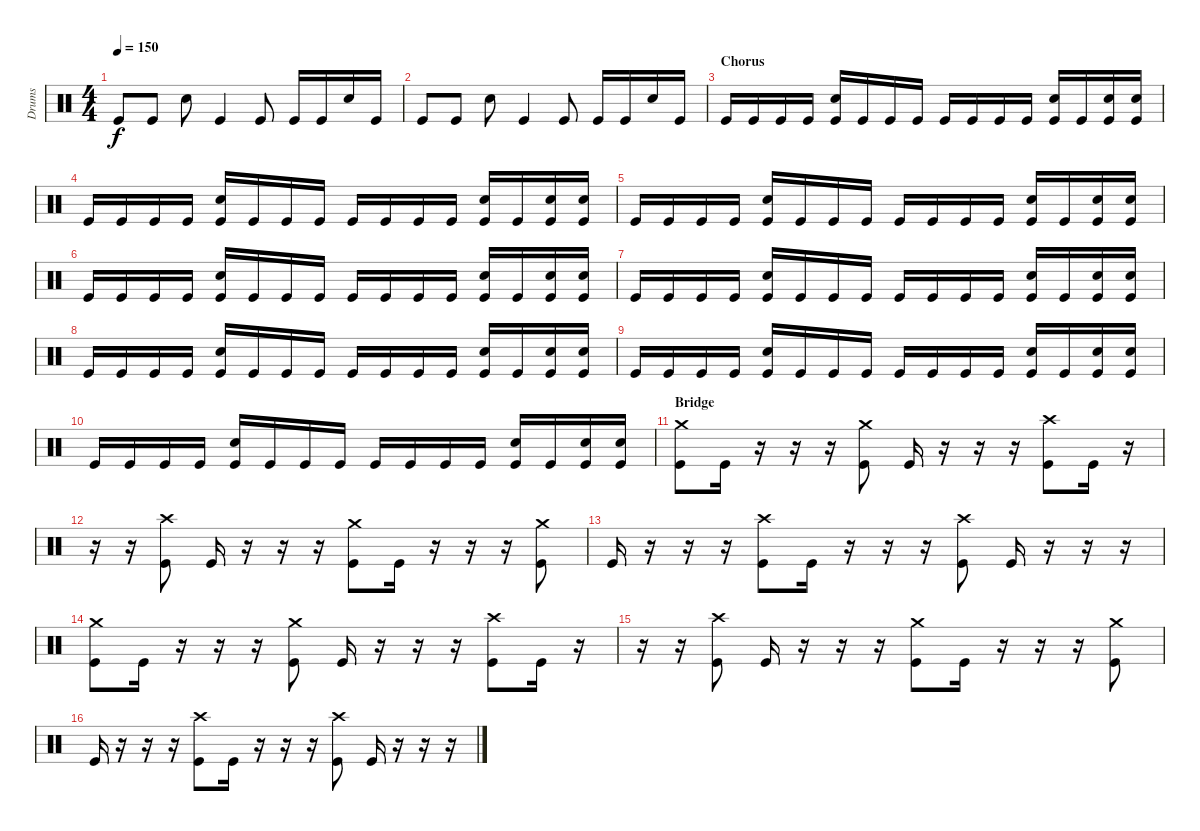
\track ("Drums" "Drums") {instrument percussion}
\staff {score}
\articulation defaults
\ts (4 4)
\tempo 150
\clef neutral
\ks c "Kick (hit)".8{dy f} "Kick (hit)".8 "Electric Snare (hit)".8 "Kick (hit)".4 "Kick (hit)".8 "Kick (hit)".16 "Kick (hit)".16 "Electric Snare (hit)".16 "Kick (hit)".16
|
"Kick (hit)".8 "Kick (hit)".8 "Electric Snare (hit)".8 "Kick (hit)".4 "Kick (hit)".8 "Kick (hit)".16 "Kick (hit)".16 "Electric Snare (hit)".16 "Kick (hit)".16 |
\section ("" "Chorus")
"Kick (hit)".16 "Kick (hit)".16 "Kick (hit)".16 "Kick (hit)".16 ("Electric Snare (hit)" "Kick (hit)").16 "Kick (hit)".16 "Kick (hit)".16 "Kick (hit)".16 "Kick (hit)".16 "Kick (hit)".16 "Kick (hit)".16 "Kick (hit)".16 ("Electric Snare (hit)" "Kick (hit)").16 "Kick (hit)".16 ("Electric Snare (hit)" "Kick (hit)").16 ("Electric Snare (hit)" "Kick (hit)").16 |
"Kick (hit)".16 "Kick (hit)".16 "Kick (hit)".16 "Kick (hit)".16 ("Electric Snare (hit)" "Kick (hit)").16 "Kick (hit)".16 "Kick (hit)".16 "Kick (hit)".16 "Kick (hit)".16 "Kick (hit)".16 "Kick (hit)".16 "Kick (hit)".16 ("Electric Snare (hit)" "Kick (hit)").16 "Kick (hit)".16 ("Electric Snare (hit)" "Kick (hit)").16 ("Electric Snare (hit)" "Kick (hit)").16 |
"Kick (hit)".16 "Kick (hit)".16 "Kick (hit)".16 "Kick (hit)".16 ("Electric Snare (hit)" "Kick (hit)").16 "Kick (hit)".16 "Kick (hit)".16 "Kick (hit)".16 "Kick (hit)".16 "Kick (hit)".16 "Kick (hit)".16 "Kick (hit)".16 ("Electric Snare (hit)" "Kick (hit)").16 "Kick (hit)".16 ("Electric Snare (hit)" "Kick (hit)").16 ("Electric Snare (hit)" "Kick (hit)").16 |
"Kick (hit)".16 "Kick (hit)".16 "Kick (hit)".16 "Kick (hit)".16 ("Electric Snare (hit)" "Kick (hit)").16 "Kick (hit)".16 "Kick (hit)".16 "Kick (hit)".16 "Kick (hit)".16 "Kick (hit)".16 "Kick (hit)".16 "Kick (hit)".16 ("Electric Snare (hit)" "Kick (hit)").16 "Kick (hit)".16 ("Electric Snare (hit)" "Kick (hit)").16 ("Electric Snare (hit)" "Kick (hit)").16 |
"Kick (hit)".16 "Kick (hit)".16 "Kick (hit)".16 "Kick (hit)".16 ("Electric Snare (hit)" "Kick (hit)").16 "Kick (hit)".16 "Kick (hit)".16 "Kick (hit)".16 "Kick (hit)".16 "Kick (hit)".16 "Kick (hit)".16 "Kick (hit)".16 ("Electric Snare (hit)" "Kick (hit)").16 "Kick (hit)".16 ("Electric Snare (hit)" "Kick (hit)").16 ("Electric Snare (hit)" "Kick (hit)").16 |
"Kick (hit)".16 "Kick (hit)".16 "Kick (hit)".16 "Kick (hit)".16 ("Electric Snare (hit)" "Kick (hit)").16 "Kick (hit)".16 "Kick (hit)".16 "Kick (hit)".16 "Kick (hit)".16 "Kick (hit)".16 "Kick (hit)".16 "Kick (hit)".16 ("Electric Snare (hit)" "Kick (hit)").16 "Kick (hit)".16 ("Electric Snare (hit)" "Kick (hit)").16 ("Electric Snare (hit)" "Kick (hit)").16 |
"Kick (hit)".16 "Kick (hit)".16 "Kick (hit)".16 "Kick (hit)".16 ("Electric Snare (hit)" "Kick (hit)").16 "Kick (hit)".16 "Kick (hit)".16 "Kick (hit)".16 "Kick (hit)".16 "Kick (hit)".16 "Kick (hit)".16 "Kick (hit)".16 ("Electric Snare (hit)" "Kick (hit)").16 "Kick (hit)".16 ("Electric Snare (hit)" "Kick (hit)").16 ("Electric Snare (hit)" "Kick (hit)").16 |
"Kick (hit)".16 "Kick (hit)".16 "Kick (hit)".16 "Kick (hit)".16 ("Electric Snare (hit)" "Kick (hit)").16 "Kick (hit)".16 "Kick (hit)".16 "Kick (hit)".16 "Kick (hit)".16 "Kick (hit)".16 "Kick (hit)".16 "Kick (hit)".16 ("Electric Snare (hit)" "Kick (hit)").16 "Kick (hit)".16 ("Electric Snare (hit)" "Kick (hit)").16 ("Electric Snare (hit)" "Kick (hit)").16 |
\section ("" "Bridge")
("Crash medium (hit)" "Kick (hit)").8 "Kick (hit)".16 r.16 r.16 r.16 ("Crash medium (hit)" "Kick (hit)").8 "Kick (hit)".16 r.16 r.16 r.16 ("Crash high (hit)" "Kick (hit)").8 "Kick (hit)".16 r.16 |
r.16 r.16 ("Crash high (hit)" "Kick (hit)").8 "Kick (hit)".16 r.16 r.16 r.16 ("Crash medium (hit)" "Kick (hit)").8 "Kick (hit)".16 r.16 r.16 r.16 ("Crash medium (hit)" "Kick (hit)").8 |
"Kick (hit)".16 r.16 r.16 r.16 ("Crash high (hit)" "Kick (hit)").8 "Kick (hit)".16 r.16 r.16 r.16 ("Crash high (hit)" "Kick (hit)").8 "Kick (hit)".16 r.16 r.16 r.16 |
("Crash medium (hit)" "Kick (hit)").8 "Kick (hit)".16 r.16 r.16 r.16 ("Crash medium (hit)" "Kick (hit)").8 "Kick (hit)".16 r.16 r.16 r.16 ("Crash high (hit)" "Kick (hit)").8 "Kick (hit)".16 r.16 |
r.16 r.16 ("Crash high (hit)" "Kick (hit)").8 "Kick (hit)".16 r.16 r.16 r.16 ("Crash medium (hit)" "Kick (hit)").8 "Kick (hit)".16 r.16 r.16 r.16 ("Crash medium (hit)" "Kick (hit)").8 |
"Kick (hit)".16 r.16 r.16 r.16 ("Crash high (hit)" "Kick (hit)").8 "Kick (hit)".16 r.16 r.16 r.16 ("Crash high (hit)" "Kick (hit)").8 "Kick (hit)".16 r.16 r.16 r.16
